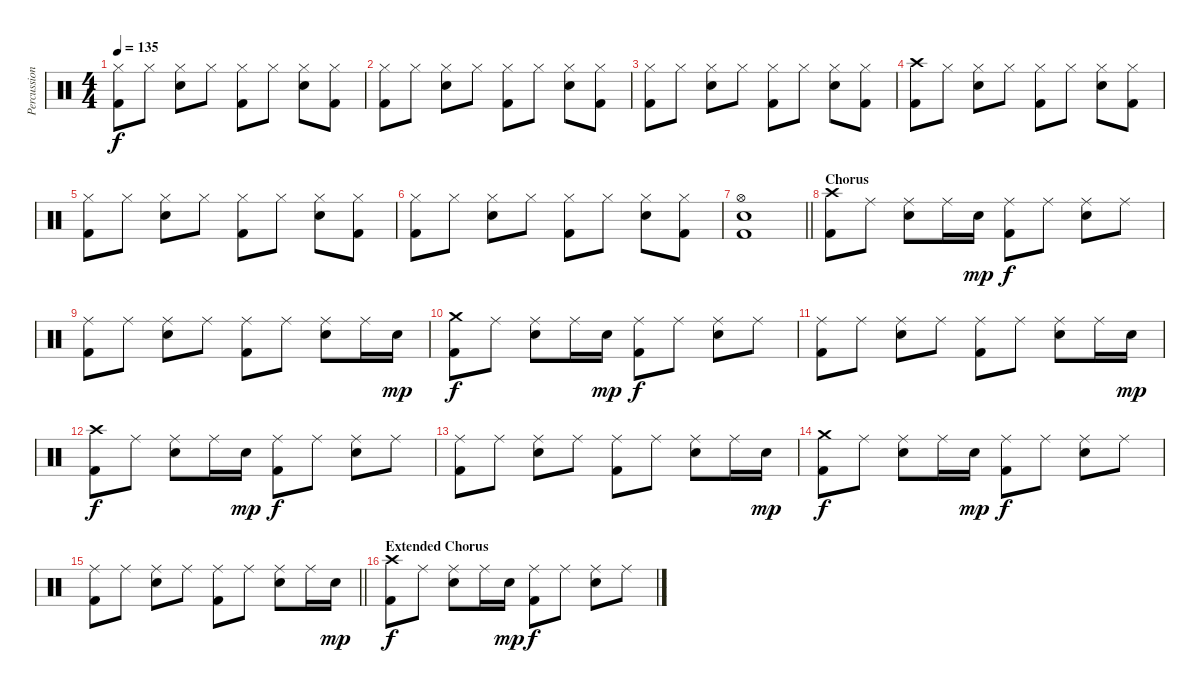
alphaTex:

\track ("Percussion" "Percussion") {instrument percussion}
\staff {score}
\articulation defaults
\ts (4 4)
\tempo 135
\clef neutral
\ks c
("Hi-Hat (closed)" "Kick (hit) 2").8{dy f} "Hi-Hat (closed)".8 ("Hi-Hat (closed)" "Snare (hit) 2").8 "Hi-Hat (closed)".8 ("Hi-Hat (closed)" "Kick (hit) 2").8 "Hi-Hat (closed)".8 ("Hi-Hat (closed)" "Snare (hit) 2").8 ("Hi-Hat (closed)" "Kick (hit) 2").8 |
("Hi-Hat (closed)" "Kick (hit) 2").8 "Hi-Hat (closed)".8 ("Hi-Hat (closed)" "Snare (hit) 2").8 "Hi-Hat (closed)".8 ("Hi-Hat (closed)" "Kick (hit) 2").8 "Hi-Hat (closed)".8 ("Hi-Hat (closed)" "Snare (hit) 2").8 ("Hi-Hat (closed)" "Kick (hit) 2").8 |
("Hi-Hat (closed)" "Kick (hit) 2").8 "Hi-Hat (closed)".8 ("Hi-Hat (closed)" "Snare (hit) 2").8 "Hi-Hat (closed)".8 ("Hi-Hat (closed)" "Kick (hit) 2").8 "Hi-Hat (closed)".8 ("Hi-Hat (closed)" "Snare (hit) 2").8 ("Hi-Hat (closed)" "Kick (hit) 2").8 |
("Crash high (hit)" "Kick (hit) 2").8 "Hi-Hat (closed)".8 ("Hi-Hat (closed)" "Snare (hit) 2").8 "Hi-Hat (closed)".8 ("Hi-Hat (closed)" "Kick (hit) 2").8 "Hi-Hat (closed)".8 ("Hi-Hat (closed)" "Snare (hit) 2").8 ("Hi-Hat (closed)" "Kick (hit) 2").8 |
("Hi-Hat (closed)" "Kick (hit) 2").8 "Hi-Hat (closed)".8 ("Hi-Hat (closed)" "Snare (hit) 2").8 "Hi-Hat (closed)".8 ("Hi-Hat (closed)" "Kick (hit) 2").8 "Hi-Hat (closed)".8 ("Hi-Hat (closed)" "Snare (hit) 2").8 ("Hi-Hat (closed)" "Kick (hit) 2").8 |
("Hi-Hat (closed)" "Kick (hit) 2").8 "Hi-Hat (closed)".8 ("Hi-Hat (closed)" "Snare (hit) 2").8 "Hi-Hat (closed)".8 ("Hi-Hat (closed)" "Kick (hit) 2").8 "Hi-Hat (closed)".8 ("Hi-Hat (closed)" "Snare (hit) 2").8 ("Hi-Hat (closed)" "Kick (hit) 2").8 |
\barLineRight lightlight
("Hi-Hat (open)" "Snare (hit) 2" "Kick (hit) 2").1 |
\section ("" "Chorus")
("Crash high (hit)" "Kick (hit) 2").8 "Ride (middle)".8 ("Ride (middle)" "Snare (hit) 2").8 "Ride (middle)".16 "Snare (hit) 2".16{dy mp} ("Ride (middle)" "Kick (hit) 2").8{dy f} "Ride (middle)".8 ("Ride (middle)" "Snare (hit) 2").8 "Ride (middle)".8 |
("Ride (middle)" "Kick (hit) 2").8 "Ride (middle)".8 ("Ride (middle)" "Snare (hit) 2").8 "Ride (middle)".8 ("Ride (middle)" "Kick (hit) 2").8 "Ride (middle)".8 ("Ride (middle)" "Snare (hit) 2").8 "Ride (middle)".16 "Snare (hit) 2".16{dy mp} |
("Crash medium (hit)" "Kick (hit) 2").8{dy f} "Ride (middle)".8 ("Ride (middle)" "Snare (hit) 2").8 "Ride (middle)".16 "Snare (hit) 2".16{dy mp} ("Ride (middle)" "Kick (hit) 2").8{dy f} "Ride (middle)".8 ("Ride (middle)" "Snare (hit) 2").8 "Ride (middle)".8 |
("Ride (middle)" "Kick (hit) 2").8 "Ride (middle)".8 ("Ride (middle)" "Snare (hit) 2").8 "Ride (middle)".8 ("Ride (middle)" "Kick (hit) 2").8 "Ride (middle)".8 ("Ride (middle)" "Snare (hit) 2").8 "Ride (middle)".16 "Snare (hit) 2".16{dy mp} |
("Crash high (hit)" "Kick (hit) 2").8{dy f} "Ride (middle)".8 ("Ride (middle)" "Snare (hit) 2").8 "Ride (middle)".16 "Snare (hit) 2".16{dy mp} ("Ride (middle)" "Kick (hit) 2").8{dy f} "Ride (middle)".8 ("Ride (middle)" "Snare (hit) 2").8 "Ride (middle)".8 |
("Ride (middle)" "Kick (hit) 2").8 "Ride (middle)".8 ("Ride (middle)" "Snare (hit) 2").8 "Ride (middle)".8 ("Ride (middle)" "Kick (hit) 2").8 "Ride (middle)".8 ("Ride (middle)" "Snare (hit) 2").8 "Ride (middle)".16 "Snare (hit) 2".16{dy mp} |
("Crash medium (hit)" "Kick (hit) 2").8{dy f} "Ride (middle)".8 ("Ride (middle)" "Snare (hit) 2").8 "Ride (middle)".16 "Snare (hit) 2".16{dy mp} ("Ride (middle)" "Kick (hit) 2").8{dy f} "Ride (middle)".8 ("Ride (middle)" "Snare (hit) 2").8 "Ride (middle)".8 |
\barLineRight lightlight
("Ride (middle)" "Kick (hit) 2").8 "Ride (middle)".8 ("Ride (middle)" "Snare (hit) 2").8 "Ride (middle)".8 ("Ride (middle)" "Kick (hit) 2").8 "Ride (middle)".8 ("Ride (middle)" "Snare (hit) 2").8 "Ride (middle)".16 "Snare (hit) 2".16{dy mp} |
\section ("" "Extended Chorus")
("Crash high (hit)" "Kick (hit) 2").8{dy f} "Ride (middle)".8 ("Ride (middle)" "Snare (hit) 2").8 "Ride (middle)".16 "Snare (hit) 2".16{dy mp} ("Ride (middle)" "Kick (hit) 2").8{dy f} "Ride (middle)".8 ("Ride (middle)" "Snare (hit) 2").8 "Ride (middle)".8
